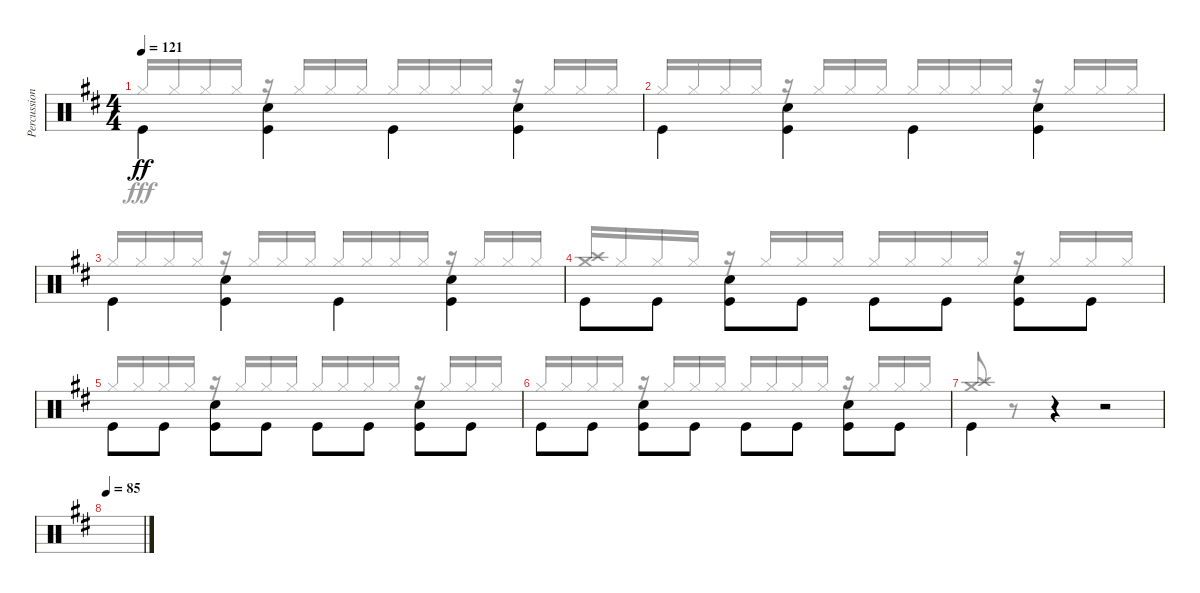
\track ("Percussions" "Percussion") {instrument percussion}
\staff {score}
\articulation defaults
\voice
\ts (4 4)
\tempo 121
\clef neutral
\ks d "Kick (hit)".4{dy ff beam Down}
("Snare (hit) 2" "Kick (hit)").4{beam Down} "Kick (hit)".4{beam Down} ("Snare (hit) 2" "Kick (hit)").4{beam Down} |
"Kick (hit)".4{beam Down} ("Snare (hit) 2" "Kick (hit)").4{beam Down} "Kick (hit)".4{beam Down} ("Snare (hit) 2" "Kick (hit)").4{beam Down} |
"Kick (hit)".4{beam Down} ("Snare (hit) 2" "Kick (hit)").4{beam Down} "Kick (hit)".4{beam Down} ("Snare (hit) 2" "Kick (hit)").4{beam Down} |
"Kick (hit)".8{beam Down} "Kick (hit)".8{beam Down} ("Snare (hit) 2" "Kick (hit)").8{beam Down} "Kick (hit)".8{beam Down} "Kick (hit)".8{beam Down} "Kick (hit)".8{beam Down} ("Snare (hit) 2" "Kick (hit)").8{beam Down} "Kick (hit)".8{beam Down} |
"Kick (hit)".8{beam Down} "Kick (hit)".8{beam Down} ("Snare (hit) 2" "Kick (hit)").8{beam Down} "Kick (hit)".8{beam Down} "Kick (hit)".8{beam Down} "Kick (hit)".8{beam Down} ("Snare (hit) 2" "Kick (hit)").8{beam Down} "Kick (hit)".8{beam Down} |
"Kick (hit)".8{beam Down} "Kick (hit)".8{beam Down} ("Snare (hit) 2" "Kick (hit)").8{beam Down} "Kick (hit)".8{beam Down} "Kick (hit)".8{beam Down} "Kick (hit)".8{beam Down} ("Snare (hit) 2" "Kick (hit)").8{beam Down} "Kick (hit)".8{beam Down} |
"Kick (hit)".4{beam Down} r.4 r.2 |
\tempo 85
|
|
\voice
\clef neutral
\ottava regular
\simile none
\ks d "Hi-Hat (closed)".16{dy fff beam Up} "Hi-Hat (closed)".16{beam Up} "Hi-Hat (closed)".16{beam Up} "Hi-Hat (closed)".16{beam Up}
r.16 "Hi-Hat (closed)".16{beam Up} "Hi-Hat (closed)".16{beam Up} "Hi-Hat (closed)".16{beam Up} "Hi-Hat (closed)".16{beam Up} "Hi-Hat (closed)".16{beam Up} "Hi-Hat (closed)".16{beam Up} "Hi-Hat (closed)".16{beam Up} r.16 "Hi-Hat (closed)".16{beam Up} "Hi-Hat (closed)".16{beam Up} "Hi-Hat (closed)".16{beam Up} |
"Hi-Hat (closed)".16{beam Up} "Hi-Hat (closed)".16{beam Up} "Hi-Hat (closed)".16{beam Up} "Hi-Hat (closed)".16{beam Up} r.16 "Hi-Hat (closed)".16{beam Up} "Hi-Hat (closed)".16{beam Up} "Hi-Hat (closed)".16{beam Up} "Hi-Hat (closed)".16{beam Up} "Hi-Hat (closed)".16{beam Up} "Hi-Hat (closed)".16{beam Up} "Hi-Hat (closed)".16{beam Up} r.16 "Hi-Hat (closed)".16{beam Up} "Hi-Hat (closed)".16{beam Up} "Hi-Hat (closed)".16{beam Up} |
"Hi-Hat (closed)".16{beam Up} "Hi-Hat (closed)".16{beam Up} "Hi-Hat (closed)".16{beam Up} "Hi-Hat (closed)".16{beam Up} r.16 "Hi-Hat (closed)".16{beam Up} "Hi-Hat (closed)".16{beam Up} "Hi-Hat (closed)".16{beam Up} "Hi-Hat (closed)".16{beam Up} "Hi-Hat (closed)".16{beam Up} "Hi-Hat (closed)".16{beam Up} "Hi-Hat (closed)".16{beam Up} r.16 "Hi-Hat (closed)".16{beam Up} "Hi-Hat (closed)".16{beam Up} "Hi-Hat (closed)".16{beam Up} |
("Crash medium (hit)" "Crash high (hit)").16{beam Up} "Hi-Hat (closed)".16{beam Up} "Hi-Hat (closed)".16{beam Up} "Hi-Hat (closed)".16{beam Up} r.16 "Hi-Hat (closed)".16{beam Up} "Hi-Hat (closed)".16{beam Up} "Hi-Hat (closed)".16{beam Up} "Hi-Hat (closed)".16{beam Up} "Hi-Hat (closed)".16{beam Up} "Hi-Hat (closed)".16{beam Up} "Hi-Hat (closed)".16{beam Up} r.16 "Hi-Hat (closed)".16{beam Up} "Hi-Hat (closed)".16{beam Up} "Hi-Hat (closed)".16{beam Up} |
"Hi-Hat (closed)".16{beam Up} "Hi-Hat (closed)".16{beam Up} "Hi-Hat (closed)".16{beam Up} "Hi-Hat (closed)".16{beam Up} r.16 "Hi-Hat (closed)".16{beam Up} "Hi-Hat (closed)".16{beam Up} "Hi-Hat (closed)".16{beam Up} "Hi-Hat (closed)".16{beam Up} "Hi-Hat (closed)".16{beam Up} "Hi-Hat (closed)".16{beam Up} "Hi-Hat (closed)".16{beam Up} r.16 "Hi-Hat (closed)".16{beam Up} "Hi-Hat (closed)".16{beam Up} "Hi-Hat (closed)".16{beam Up} |
"Hi-Hat (closed)".16{beam Up} "Hi-Hat (closed)".16{beam Up} "Hi-Hat (closed)".16{beam Up} "Hi-Hat (closed)".16{beam Up} r.16 "Hi-Hat (closed)".16{beam Up} "Hi-Hat (closed)".16{beam Up} "Hi-Hat (closed)".16{beam Up} "Hi-Hat (closed)".16{beam Up} "Hi-Hat (closed)".16{beam Up} "Hi-Hat (closed)".16{beam Up} "Hi-Hat (closed)".16{beam Up} r.16 "Hi-Hat (closed)".16{beam Up} "Hi-Hat (closed)".16{beam Up} "Hi-Hat (closed)".16{beam Up} |
("Crash medium (hit)" "Crash high (hit)").8{beam Up} r.8 r.4 r.2 |
|
|
